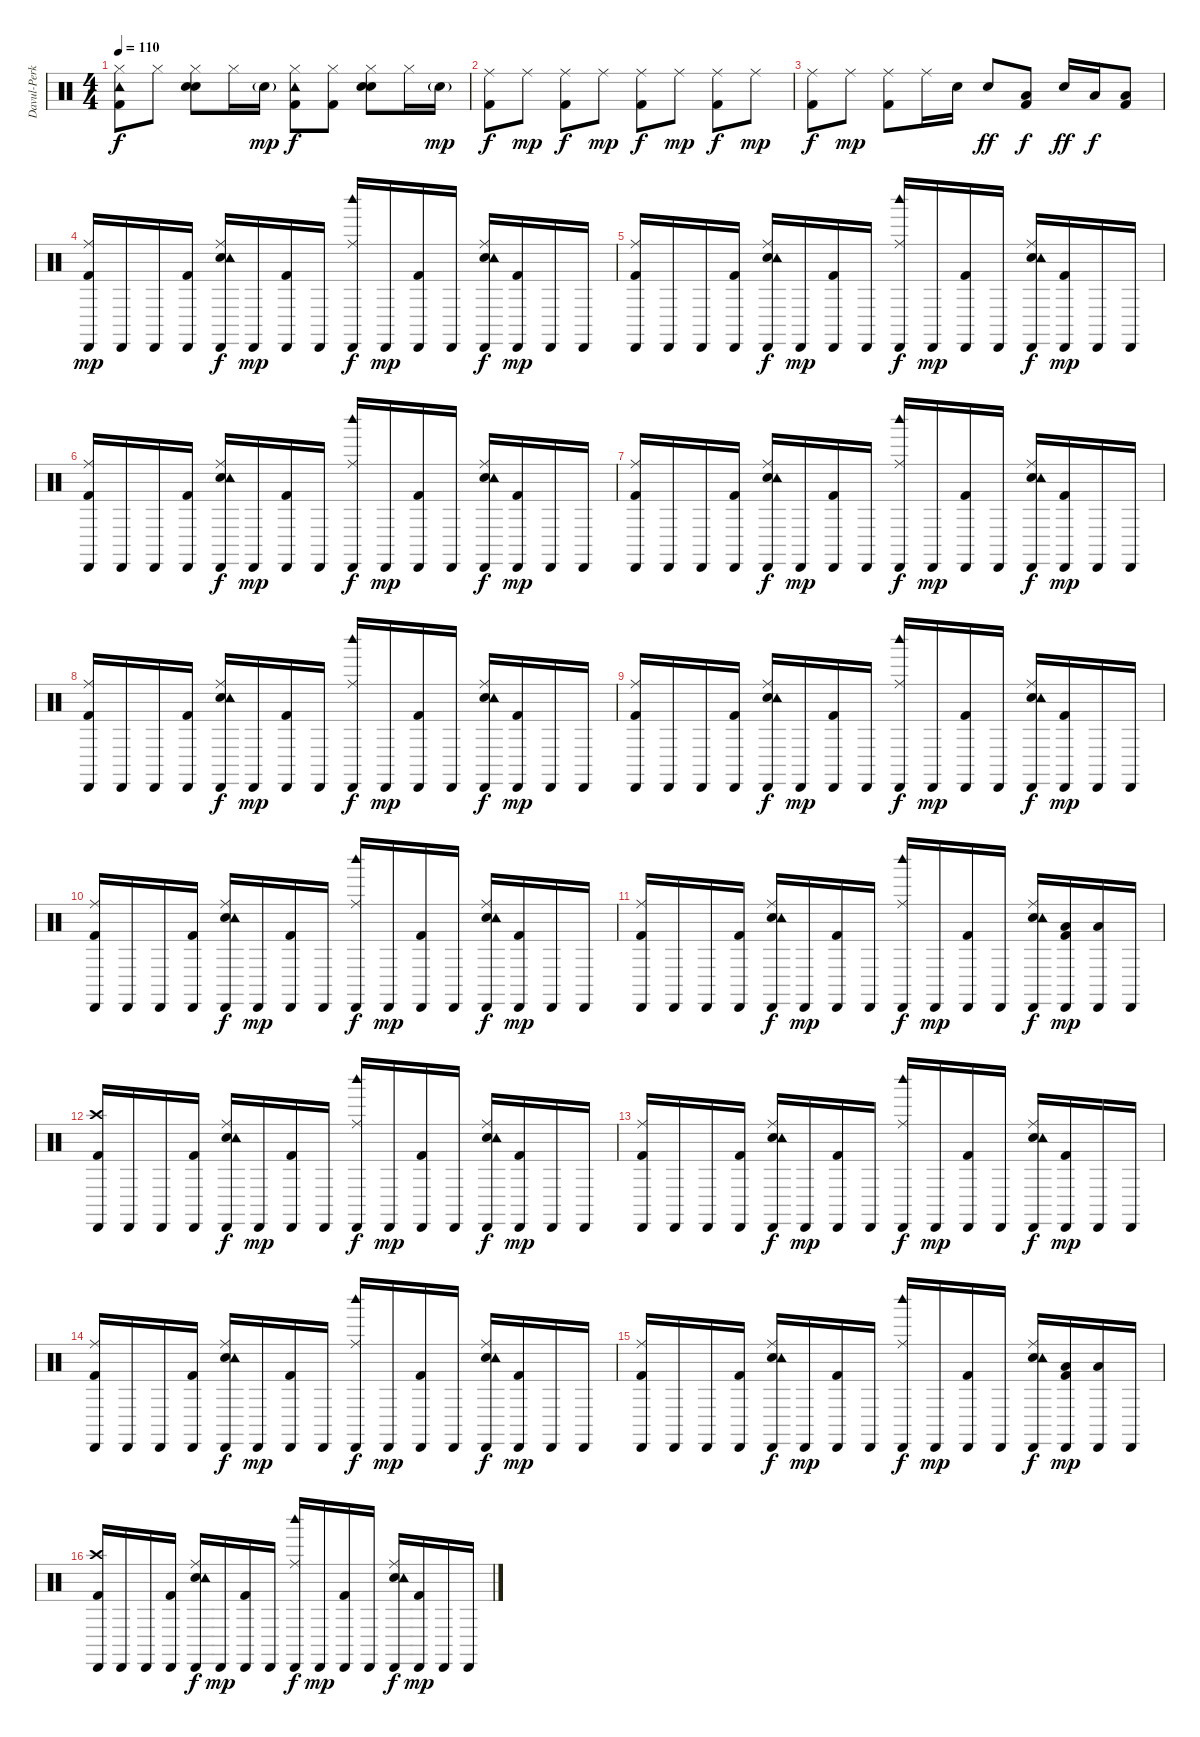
\track ("Davul-Perküsyon" "Davul-Perk") {instrument percussion}
\staff {score}
\articulation defaults
\ts (4 4)
\tempo 110
\clef neutral
\ks c
("Hi-Hat (closed)" "Tambourine (hit)" "Kick (hit) 2").8{dy f} "Hi-Hat (closed)".8 ("Electric Snare (hit)" "Hi-Hat (closed)" "Hand Clap (hit)").8 "Hi-Hat (closed)".16 "Electric Snare (hit)"{g}.16{dy mp} ("Hi-Hat (closed)" "Tambourine (hit)" "Kick (hit) 2").8{dy f} ("Hi-Hat (closed)" "Kick (hit) 2").8 ("Electric Snare (hit)" "Hi-Hat (closed)" "Hand Clap (hit)").8 "Hi-Hat (closed)".16 "Electric Snare (hit)"{g}.16{dy mp} |
("Ride (middle)" "Kick (hit) 2").8{dy f} "Ride (middle)".8{dy mp} ("Ride (middle)" "Kick (hit) 2").8{dy f} "Ride (middle)".8{dy mp} ("Ride (middle)" "Kick (hit) 2").8{dy f} "Ride (middle)".8{dy mp} ("Ride (middle)" "Kick (hit) 2").8{dy f} "Ride (middle)".8{dy mp} |
("Ride (middle)" "Kick (hit) 2").8{dy f} "Ride (middle)".8{dy mp} ("Ride (middle)" "Kick (hit) 2").8 "Ride (middle)".16 "Electric Snare (hit)".16 "Electric Snare (hit)".8{dy ff} ("Low Tom (hit)" "Kick (hit) 2").8{dy f} "Electric Snare (hit)".16{dy ff} "Low Tom (hit)".16{dy f} ("Low Tom (hit)" "Kick (hit) 2").8 |
("Ride (middle)" "Cabasa (hit)" "Kick (hit) 2").16{dy mp} "Cabasa (hit)".16 "Cabasa (hit)".16 ("Cabasa (hit)" "Kick (hit) 2").16 ("Electric Snare (hit)" "Ride (middle)" "Tambourine (hit)" "Cabasa (hit)").16{dy f} "Cabasa (hit)".16{dy mp} ("Cabasa (hit)" "Kick (hit) 2").16 "Cabasa (hit)".16 ("Ride (middle)" "Woodblock high (hit)" "Cabasa (hit)").16{dy f} "Cabasa (hit)".16{dy mp} ("Cabasa (hit)" "Kick (hit) 2").16 "Cabasa (hit)".16 ("Electric Snare (hit)" "Ride (middle)" "Tambourine (hit)" "Cabasa (hit)").16{dy f} ("Cabasa (hit)" "Kick (hit) 2").16{dy mp} "Cabasa (hit)".16 "Cabasa (hit)".16 |
("Ride (middle)" "Cabasa (hit)" "Kick (hit) 2").16 "Cabasa (hit)".16 "Cabasa (hit)".16 ("Cabasa (hit)" "Kick (hit) 2").16 ("Electric Snare (hit)" "Ride (middle)" "Tambourine (hit)" "Cabasa (hit)").16{dy f} "Cabasa (hit)".16{dy mp} ("Cabasa (hit)" "Kick (hit) 2").16 "Cabasa (hit)".16 ("Ride (middle)" "Woodblock high (hit)" "Cabasa (hit)").16{dy f} "Cabasa (hit)".16{dy mp} ("Cabasa (hit)" "Kick (hit) 2").16 "Cabasa (hit)".16 ("Electric Snare (hit)" "Ride (middle)" "Tambourine (hit)" "Cabasa (hit)").16{dy f} ("Cabasa (hit)" "Kick (hit) 2").16{dy mp} "Cabasa (hit)".16 "Cabasa (hit)".16 |
("Ride (middle)" "Cabasa (hit)" "Kick (hit) 2").16 "Cabasa (hit)".16 "Cabasa (hit)".16 ("Cabasa (hit)" "Kick (hit) 2").16 ("Electric Snare (hit)" "Ride (middle)" "Tambourine (hit)" "Cabasa (hit)").16{dy f} "Cabasa (hit)".16{dy mp} ("Cabasa (hit)" "Kick (hit) 2").16 "Cabasa (hit)".16 ("Ride (middle)" "Woodblock high (hit)" "Cabasa (hit)").16{dy f} "Cabasa (hit)".16{dy mp} ("Cabasa (hit)" "Kick (hit) 2").16 "Cabasa (hit)".16 ("Electric Snare (hit)" "Ride (middle)" "Tambourine (hit)" "Cabasa (hit)").16{dy f} ("Cabasa (hit)" "Kick (hit) 2").16{dy mp} "Cabasa (hit)".16 "Cabasa (hit)".16 |
("Ride (middle)" "Cabasa (hit)" "Kick (hit) 2").16 "Cabasa (hit)".16 "Cabasa (hit)".16 ("Cabasa (hit)" "Kick (hit) 2").16 ("Electric Snare (hit)" "Ride (middle)" "Tambourine (hit)" "Cabasa (hit)").16{dy f} "Cabasa (hit)".16{dy mp} ("Cabasa (hit)" "Kick (hit) 2").16 "Cabasa (hit)".16 ("Ride (middle)" "Woodblock high (hit)" "Cabasa (hit)").16{dy f} "Cabasa (hit)".16{dy mp} ("Cabasa (hit)" "Kick (hit) 2").16 "Cabasa (hit)".16 ("Electric Snare (hit)" "Ride (middle)" "Tambourine (hit)" "Cabasa (hit)").16{dy f} ("Cabasa (hit)" "Kick (hit) 2").16{dy mp} "Cabasa (hit)".16 "Cabasa (hit)".16 |
("Ride (middle)" "Cabasa (hit)" "Kick (hit) 2").16 "Cabasa (hit)".16 "Cabasa (hit)".16 ("Cabasa (hit)" "Kick (hit) 2").16 ("Electric Snare (hit)" "Ride (middle)" "Tambourine (hit)" "Cabasa (hit)").16{dy f} "Cabasa (hit)".16{dy mp} ("Cabasa (hit)" "Kick (hit) 2").16 "Cabasa (hit)".16 ("Ride (middle)" "Woodblock high (hit)" "Cabasa (hit)").16{dy f} "Cabasa (hit)".16{dy mp} ("Cabasa (hit)" "Kick (hit) 2").16 "Cabasa (hit)".16 ("Electric Snare (hit)" "Ride (middle)" "Tambourine (hit)" "Cabasa (hit)").16{dy f} ("Cabasa (hit)" "Kick (hit) 2").16{dy mp} "Cabasa (hit)".16 "Cabasa (hit)".16 |
("Ride (middle)" "Cabasa (hit)" "Kick (hit) 2").16 "Cabasa (hit)".16 "Cabasa (hit)".16 ("Cabasa (hit)" "Kick (hit) 2").16 ("Electric Snare (hit)" "Ride (middle)" "Tambourine (hit)" "Cabasa (hit)").16{dy f} "Cabasa (hit)".16{dy mp} ("Cabasa (hit)" "Kick (hit) 2").16 "Cabasa (hit)".16 ("Ride (middle)" "Woodblock high (hit)" "Cabasa (hit)").16{dy f} "Cabasa (hit)".16{dy mp} ("Cabasa (hit)" "Kick (hit) 2").16 "Cabasa (hit)".16 ("Electric Snare (hit)" "Ride (middle)" "Tambourine (hit)" "Cabasa (hit)").16{dy f} ("Cabasa (hit)" "Kick (hit) 2").16{dy mp} "Cabasa (hit)".16 "Cabasa (hit)".16 |
("Ride (middle)" "Cabasa (hit)" "Kick (hit) 2").16 "Cabasa (hit)".16 "Cabasa (hit)".16 ("Cabasa (hit)" "Kick (hit) 2").16 ("Electric Snare (hit)" "Ride (middle)" "Tambourine (hit)" "Cabasa (hit)").16{dy f} "Cabasa (hit)".16{dy mp} ("Cabasa (hit)" "Kick (hit) 2").16 "Cabasa (hit)".16 ("Ride (middle)" "Woodblock high (hit)" "Cabasa (hit)").16{dy f} "Cabasa (hit)".16{dy mp} ("Cabasa (hit)" "Kick (hit) 2").16 "Cabasa (hit)".16 ("Electric Snare (hit)" "Ride (middle)" "Tambourine (hit)" "Cabasa (hit)").16{dy f} ("Cabasa (hit)" "Kick (hit) 2").16{dy mp} "Cabasa (hit)".16 "Cabasa (hit)".16 |
("Ride (middle)" "Cabasa (hit)" "Kick (hit) 2").16 "Cabasa (hit)".16 "Cabasa (hit)".16 ("Cabasa (hit)" "Kick (hit) 2").16 ("Electric Snare (hit)" "Ride (middle)" "Tambourine (hit)" "Cabasa (hit)").16{dy f} "Cabasa (hit)".16{dy mp} ("Cabasa (hit)" "Kick (hit) 2").16 "Cabasa (hit)".16 ("Ride (middle)" "Woodblock high (hit)" "Cabasa (hit)").16{dy f} "Cabasa (hit)".16{dy mp} ("Cabasa (hit)" "Kick (hit) 2").16 "Cabasa (hit)".16 ("Electric Snare (hit)" "Ride (middle)" "Tambourine (hit)" "Cabasa (hit)").16{dy f} ("Low Tom (hit)" "Cabasa (hit)" "Kick (hit) 2").16{dy mp} ("Low Tom (hit)" "Cabasa (hit)").16 "Cabasa (hit)".16 |
("Crash high (hit)" "Cabasa (hit)" "Kick (hit) 2").16 "Cabasa (hit)".16 "Cabasa (hit)".16 ("Cabasa (hit)" "Kick (hit) 2").16 ("Electric Snare (hit)" "Ride (middle)" "Tambourine (hit)" "Cabasa (hit)").16{dy f} "Cabasa (hit)".16{dy mp} ("Cabasa (hit)" "Kick (hit) 2").16 "Cabasa (hit)".16 ("Ride (middle)" "Woodblock high (hit)" "Cabasa (hit)").16{dy f} "Cabasa (hit)".16{dy mp} ("Cabasa (hit)" "Kick (hit) 2").16 "Cabasa (hit)".16 ("Electric Snare (hit)" "Ride (middle)" "Tambourine (hit)" "Cabasa (hit)").16{dy f} ("Cabasa (hit)" "Kick (hit) 2").16{dy mp} "Cabasa (hit)".16 "Cabasa (hit)".16 |
("Ride (middle)" "Cabasa (hit)" "Kick (hit) 2").16 "Cabasa (hit)".16 "Cabasa (hit)".16 ("Cabasa (hit)" "Kick (hit) 2").16 ("Electric Snare (hit)" "Ride (middle)" "Tambourine (hit)" "Cabasa (hit)").16{dy f} "Cabasa (hit)".16{dy mp} ("Cabasa (hit)" "Kick (hit) 2").16 "Cabasa (hit)".16 ("Ride (middle)" "Woodblock high (hit)" "Cabasa (hit)").16{dy f} "Cabasa (hit)".16{dy mp} ("Cabasa (hit)" "Kick (hit) 2").16 "Cabasa (hit)".16 ("Electric Snare (hit)" "Ride (middle)" "Tambourine (hit)" "Cabasa (hit)").16{dy f} ("Cabasa (hit)" "Kick (hit) 2").16{dy mp} "Cabasa (hit)".16 "Cabasa (hit)".16 |
("Ride (middle)" "Cabasa (hit)" "Kick (hit) 2").16 "Cabasa (hit)".16 "Cabasa (hit)".16 ("Cabasa (hit)" "Kick (hit) 2").16 ("Electric Snare (hit)" "Ride (middle)" "Tambourine (hit)" "Cabasa (hit)").16{dy f} "Cabasa (hit)".16{dy mp} ("Cabasa (hit)" "Kick (hit) 2").16 "Cabasa (hit)".16 ("Ride (middle)" "Woodblock high (hit)" "Cabasa (hit)").16{dy f} "Cabasa (hit)".16{dy mp} ("Cabasa (hit)" "Kick (hit) 2").16 "Cabasa (hit)".16 ("Electric Snare (hit)" "Ride (middle)" "Tambourine (hit)" "Cabasa (hit)").16{dy f} ("Cabasa (hit)" "Kick (hit) 2").16{dy mp} "Cabasa (hit)".16 "Cabasa (hit)".16 |
("Ride (middle)" "Cabasa (hit)" "Kick (hit) 2").16 "Cabasa (hit)".16 "Cabasa (hit)".16 ("Cabasa (hit)" "Kick (hit) 2").16 ("Electric Snare (hit)" "Ride (middle)" "Tambourine (hit)" "Cabasa (hit)").16{dy f} "Cabasa (hit)".16{dy mp} ("Cabasa (hit)" "Kick (hit) 2").16 "Cabasa (hit)".16 ("Ride (middle)" "Woodblock high (hit)" "Cabasa (hit)").16{dy f} "Cabasa (hit)".16{dy mp} ("Cabasa (hit)" "Kick (hit) 2").16 "Cabasa (hit)".16 ("Electric Snare (hit)" "Ride (middle)" "Tambourine (hit)" "Cabasa (hit)").16{dy f} ("Low Tom (hit)" "Cabasa (hit)" "Kick (hit) 2").16{dy mp} ("Low Tom (hit)" "Cabasa (hit)").16 "Cabasa (hit)".16 |
("Crash high (hit)" "Cabasa (hit)" "Kick (hit) 2").16 "Cabasa (hit)".16 "Cabasa (hit)".16 ("Cabasa (hit)" "Kick (hit) 2").16 ("Electric Snare (hit)" "Ride (middle)" "Tambourine (hit)" "Cabasa (hit)").16{dy f} "Cabasa (hit)".16{dy mp} ("Cabasa (hit)" "Kick (hit) 2").16 "Cabasa (hit)".16 ("Ride (middle)" "Woodblock high (hit)" "Cabasa (hit)").16{dy f} "Cabasa (hit)".16{dy mp} ("Cabasa (hit)" "Kick (hit) 2").16 "Cabasa (hit)".16 ("Electric Snare (hit)" "Ride (middle)" "Tambourine (hit)" "Cabasa (hit)").16{dy f} ("Cabasa (hit)" "Kick (hit) 2").16{dy mp} "Cabasa (hit)".16 "Cabasa (hit)".16
